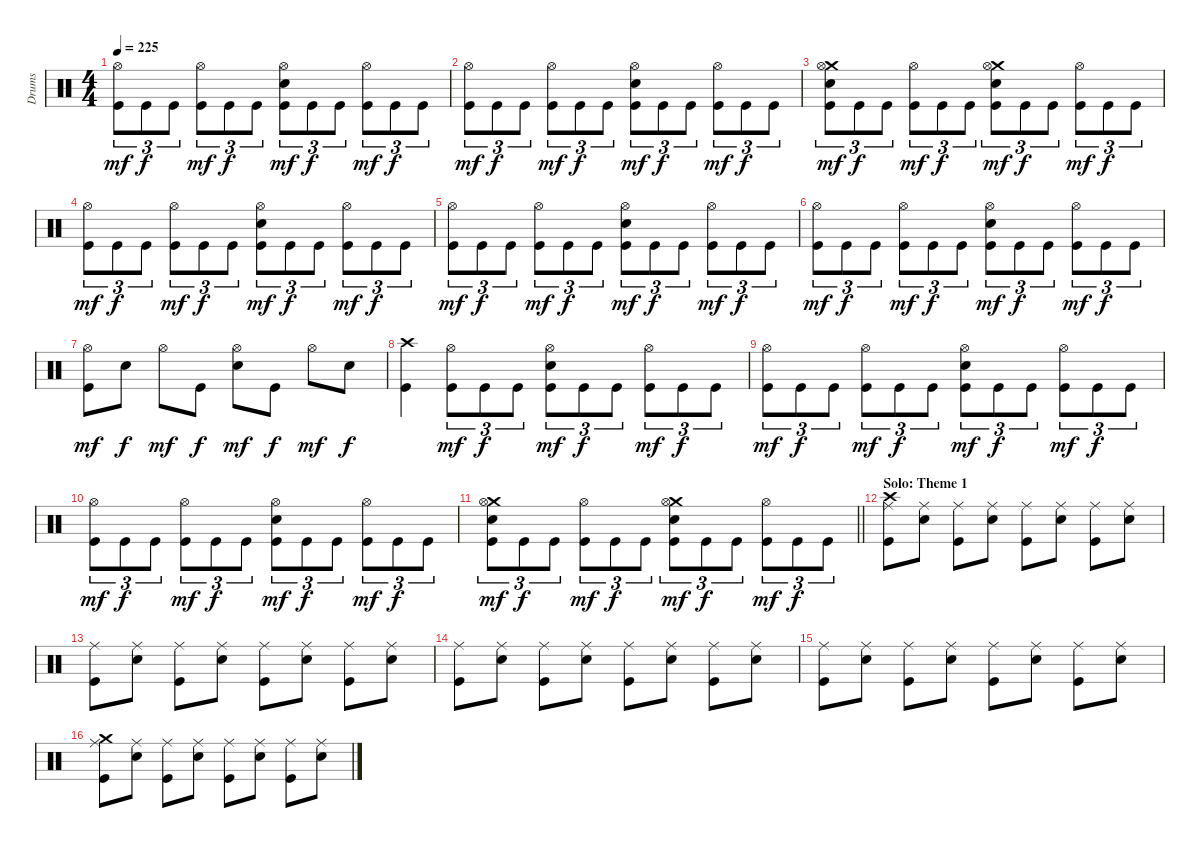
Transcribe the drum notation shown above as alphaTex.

\track ("Drums" "Drums") {instrument percussion}
\staff {score}
\articulation defaults
\ts (4 4)
\tempo 225
\clef neutral
\ks c
("Hi-Hat (open)" "Kick (hit)").8{tu (3 2) dy mf} "Kick (hit)".8{tu (3 2) dy f} "Kick (hit)".8{tu (3 2)} ("Hi-Hat (open)" "Kick (hit)").8{tu (3 2) dy mf} "Kick (hit)".8{tu (3 2) dy f} "Kick (hit)".8{tu (3 2)} ("Hi-Hat (open)" "Electric Snare (hit)" "Kick (hit)").8{tu (3 2) dy mf} "Kick (hit)".8{tu (3 2) dy f} "Kick (hit)".8{tu (3 2)} ("Hi-Hat (open)" "Kick (hit)").8{tu (3 2) dy mf} "Kick (hit)".8{tu (3 2) dy f} "Kick (hit)".8{tu (3 2)} |
("Hi-Hat (open)" "Kick (hit)").8{tu (3 2) dy mf} "Kick (hit)".8{tu (3 2) dy f} "Kick (hit)".8{tu (3 2)} ("Hi-Hat (open)" "Kick (hit)").8{tu (3 2) dy mf} "Kick (hit)".8{tu (3 2) dy f} "Kick (hit)".8{tu (3 2)} ("Hi-Hat (open)" "Electric Snare (hit)" "Kick (hit)").8{tu (3 2) dy mf} "Kick (hit)".8{tu (3 2) dy f} "Kick (hit)".8{tu (3 2)} ("Hi-Hat (open)" "Kick (hit)").8{tu (3 2) dy mf} "Kick (hit)".8{tu (3 2) dy f} "Kick (hit)".8{tu (3 2)} |
("Crash medium (hit)" "Hi-Hat (open)" "Electric Snare (hit)" "Kick (hit)").8{tu (3 2) dy mf} "Kick (hit)".8{tu (3 2) dy f} "Kick (hit)".8{tu (3 2)} ("Hi-Hat (open)" "Kick (hit)").8{tu (3 2) dy mf} "Kick (hit)".8{tu (3 2) dy f} "Kick (hit)".8{tu (3 2)} ("Crash medium (hit)" "Hi-Hat (open)" "Electric Snare (hit)" "Kick (hit)").8{tu (3 2) dy mf} "Kick (hit)".8{tu (3 2) dy f} "Kick (hit)".8{tu (3 2)} ("Hi-Hat (open)" "Kick (hit)").8{tu (3 2) dy mf} "Kick (hit)".8{tu (3 2) dy f} "Kick (hit)".8{tu (3 2)} |
("Hi-Hat (open)" "Kick (hit)").8{tu (3 2) dy mf} "Kick (hit)".8{tu (3 2) dy f} "Kick (hit)".8{tu (3 2)} ("Hi-Hat (open)" "Kick (hit)").8{tu (3 2) dy mf} "Kick (hit)".8{tu (3 2) dy f} "Kick (hit)".8{tu (3 2)} ("Hi-Hat (open)" "Electric Snare (hit)" "Kick (hit)").8{tu (3 2) dy mf} "Kick (hit)".8{tu (3 2) dy f} "Kick (hit)".8{tu (3 2)} ("Hi-Hat (open)" "Kick (hit)").8{tu (3 2) dy mf} "Kick (hit)".8{tu (3 2) dy f} "Kick (hit)".8{tu (3 2)} |
("Hi-Hat (open)" "Kick (hit)").8{tu (3 2) dy mf} "Kick (hit)".8{tu (3 2) dy f} "Kick (hit)".8{tu (3 2)} ("Hi-Hat (open)" "Kick (hit)").8{tu (3 2) dy mf} "Kick (hit)".8{tu (3 2) dy f} "Kick (hit)".8{tu (3 2)} ("Hi-Hat (open)" "Electric Snare (hit)" "Kick (hit)").8{tu (3 2) dy mf} "Kick (hit)".8{tu (3 2) dy f} "Kick (hit)".8{tu (3 2)} ("Hi-Hat (open)" "Kick (hit)").8{tu (3 2) dy mf} "Kick (hit)".8{tu (3 2) dy f} "Kick (hit)".8{tu (3 2)} |
("Hi-Hat (open)" "Kick (hit)").8{tu (3 2) dy mf} "Kick (hit)".8{tu (3 2) dy f} "Kick (hit)".8{tu (3 2)} ("Hi-Hat (open)" "Kick (hit)").8{tu (3 2) dy mf} "Kick (hit)".8{tu (3 2) dy f} "Kick (hit)".8{tu (3 2)} ("Hi-Hat (open)" "Electric Snare (hit)" "Kick (hit)").8{tu (3 2) dy mf} "Kick (hit)".8{tu (3 2) dy f} "Kick (hit)".8{tu (3 2)} ("Hi-Hat (open)" "Kick (hit)").8{tu (3 2) dy mf} "Kick (hit)".8{tu (3 2) dy f} "Kick (hit)".8{tu (3 2)} |
("Hi-Hat (open)" "Kick (hit)").8{dy mf} "Electric Snare (hit)".8{dy f} "Hi-Hat (open)".8{dy mf} "Kick (hit)".8{dy f} ("Hi-Hat (open)" "Electric Snare (hit)").8{dy mf} "Kick (hit)".8{dy f} "Hi-Hat (open)".8{dy mf} "Electric Snare (hit)".8{dy f} |
("Crash high (hit)" "Kick (hit)").4 ("Hi-Hat (open)" "Kick (hit)").8{tu (3 2) dy mf} "Kick (hit)".8{tu (3 2) dy f} "Kick (hit)".8{tu (3 2)} ("Hi-Hat (open)" "Electric Snare (hit)" "Kick (hit)").8{tu (3 2) dy mf} "Kick (hit)".8{tu (3 2) dy f} "Kick (hit)".8{tu (3 2)} ("Hi-Hat (open)" "Kick (hit)").8{tu (3 2) dy mf} "Kick (hit)".8{tu (3 2) dy f} "Kick (hit)".8{tu (3 2)} |
("Hi-Hat (open)" "Kick (hit)").8{tu (3 2) dy mf} "Kick (hit)".8{tu (3 2) dy f} "Kick (hit)".8{tu (3 2)} ("Hi-Hat (open)" "Kick (hit)").8{tu (3 2) dy mf} "Kick (hit)".8{tu (3 2) dy f} "Kick (hit)".8{tu (3 2)} ("Hi-Hat (open)" "Electric Snare (hit)" "Kick (hit)").8{tu (3 2) dy mf} "Kick (hit)".8{tu (3 2) dy f} "Kick (hit)".8{tu (3 2)} ("Hi-Hat (open)" "Kick (hit)").8{tu (3 2) dy mf} "Kick (hit)".8{tu (3 2) dy f} "Kick (hit)".8{tu (3 2)} |
("Hi-Hat (open)" "Kick (hit)").8{tu (3 2) dy mf} "Kick (hit)".8{tu (3 2) dy f} "Kick (hit)".8{tu (3 2)} ("Hi-Hat (open)" "Kick (hit)").8{tu (3 2) dy mf} "Kick (hit)".8{tu (3 2) dy f} "Kick (hit)".8{tu (3 2)} ("Hi-Hat (open)" "Electric Snare (hit)" "Kick (hit)").8{tu (3 2) dy mf} "Kick (hit)".8{tu (3 2) dy f} "Kick (hit)".8{tu (3 2)} ("Hi-Hat (open)" "Kick (hit)").8{tu (3 2) dy mf} "Kick (hit)".8{tu (3 2) dy f} "Kick (hit)".8{tu (3 2)} |
\barLineRight lightlight
("Crash medium (hit)" "Hi-Hat (open)" "Electric Snare (hit)" "Kick (hit)").8{tu (3 2) dy mf} "Kick (hit)".8{tu (3 2) dy f} "Kick (hit)".8{tu (3 2)} ("Hi-Hat (open)" "Kick (hit)").8{tu (3 2) dy mf} "Kick (hit)".8{tu (3 2) dy f} "Kick (hit)".8{tu (3 2)} ("Crash medium (hit)" "Hi-Hat (open)" "Electric Snare (hit)" "Kick (hit)").8{tu (3 2) dy mf} "Kick (hit)".8{tu (3 2) dy f} "Kick (hit)".8{tu (3 2)} ("Hi-Hat (open)" "Kick (hit)").8{tu (3 2) dy mf} "Kick (hit)".8{tu (3 2) dy f} "Kick (hit)".8{tu (3 2)} |
\section ("" "Solo: Theme 1")
("Crash high (hit)" "Ride (middle)" "Kick (hit)").8 ("Ride (middle)" "Electric Snare (hit)").8 ("Ride (middle)" "Kick (hit)").8 ("Ride (middle)" "Electric Snare (hit)").8 ("Ride (middle)" "Kick (hit)").8 ("Ride (middle)" "Electric Snare (hit)").8 ("Ride (middle)" "Kick (hit)").8 ("Ride (middle)" "Electric Snare (hit)").8 |
("Ride (middle)" "Kick (hit)").8 ("Ride (middle)" "Electric Snare (hit)").8 ("Ride (middle)" "Kick (hit)").8 ("Ride (middle)" "Electric Snare (hit)").8 ("Ride (middle)" "Kick (hit)").8 ("Ride (middle)" "Electric Snare (hit)").8 ("Ride (middle)" "Kick (hit)").8 ("Ride (middle)" "Electric Snare (hit)").8 |
("Ride (middle)" "Kick (hit)").8 ("Ride (middle)" "Electric Snare (hit)").8 ("Ride (middle)" "Kick (hit)").8 ("Ride (middle)" "Electric Snare (hit)").8 ("Ride (middle)" "Kick (hit)").8 ("Ride (middle)" "Electric Snare (hit)").8 ("Ride (middle)" "Kick (hit)").8 ("Ride (middle)" "Electric Snare (hit)").8 |
("Ride (middle)" "Kick (hit)").8 ("Ride (middle)" "Electric Snare (hit)").8 ("Ride (middle)" "Kick (hit)").8 ("Ride (middle)" "Electric Snare (hit)").8 ("Ride (middle)" "Kick (hit)").8 ("Ride (middle)" "Electric Snare (hit)").8 ("Ride (middle)" "Kick (hit)").8 ("Ride (middle)" "Electric Snare (hit)").8 |
("Crash medium (hit)" "Ride (middle)" "Kick (hit)").8 ("Ride (middle)" "Electric Snare (hit)").8 ("Ride (middle)" "Kick (hit)").8 ("Ride (middle)" "Electric Snare (hit)").8 ("Ride (middle)" "Kick (hit)").8 ("Ride (middle)" "Electric Snare (hit)").8 ("Ride (middle)" "Kick (hit)").8 ("Ride (middle)" "Electric Snare (hit)").8
